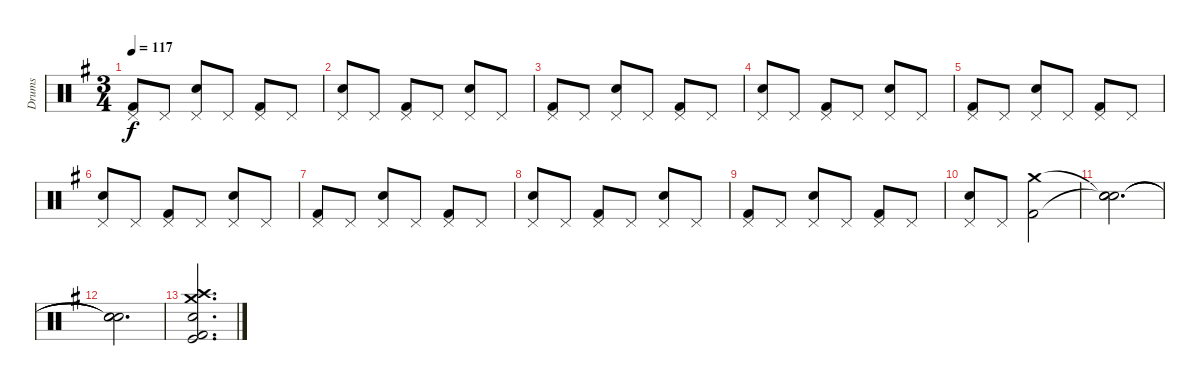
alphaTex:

\track ("Drums" "Drums") {instrument percussion}
\staff {score}
\articulation defaults
\ts (3 4)
\tempo 117
\clef neutral
\ks g
("Pedal Hi-Hat (hit)" "Kick (hit) 2").8{dy f} "Pedal Hi-Hat (hit)".8 ("Pedal Hi-Hat (hit)" "Snare (hit) 2").8 "Pedal Hi-Hat (hit)".8 ("Pedal Hi-Hat (hit)" "Kick (hit) 2").8 "Pedal Hi-Hat (hit)".8 |
("Pedal Hi-Hat (hit)" "Snare (hit) 2").8 "Pedal Hi-Hat (hit)".8 ("Pedal Hi-Hat (hit)" "Kick (hit) 2").8 "Pedal Hi-Hat (hit)".8 ("Pedal Hi-Hat (hit)" "Snare (hit) 2").8 "Pedal Hi-Hat (hit)".8 |
("Pedal Hi-Hat (hit)" "Kick (hit) 2").8 "Pedal Hi-Hat (hit)".8 ("Pedal Hi-Hat (hit)" "Snare (hit) 2").8 "Pedal Hi-Hat (hit)".8 ("Pedal Hi-Hat (hit)" "Kick (hit) 2").8 "Pedal Hi-Hat (hit)".8 |
("Pedal Hi-Hat (hit)" "Snare (hit) 2").8 "Pedal Hi-Hat (hit)".8 ("Pedal Hi-Hat (hit)" "Kick (hit) 2").8 "Pedal Hi-Hat (hit)".8 ("Pedal Hi-Hat (hit)" "Snare (hit) 2").8 "Pedal Hi-Hat (hit)".8 |
("Pedal Hi-Hat (hit)" "Kick (hit) 2").8 "Pedal Hi-Hat (hit)".8 ("Pedal Hi-Hat (hit)" "Snare (hit) 2").8 "Pedal Hi-Hat (hit)".8 ("Pedal Hi-Hat (hit)" "Kick (hit) 2").8 "Pedal Hi-Hat (hit)".8 |
("Pedal Hi-Hat (hit)" "Snare (hit) 2").8 "Pedal Hi-Hat (hit)".8 ("Pedal Hi-Hat (hit)" "Kick (hit) 2").8 "Pedal Hi-Hat (hit)".8 ("Pedal Hi-Hat (hit)" "Snare (hit) 2").8 "Pedal Hi-Hat (hit)".8 |
("Pedal Hi-Hat (hit)" "Kick (hit) 2").8 "Pedal Hi-Hat (hit)".8 ("Pedal Hi-Hat (hit)" "Snare (hit) 2").8 "Pedal Hi-Hat (hit)".8 ("Pedal Hi-Hat (hit)" "Kick (hit) 2").8 "Pedal Hi-Hat (hit)".8 |
("Pedal Hi-Hat (hit)" "Snare (hit) 2").8 "Pedal Hi-Hat (hit)".8 ("Pedal Hi-Hat (hit)" "Kick (hit) 2").8 "Pedal Hi-Hat (hit)".8 ("Pedal Hi-Hat (hit)" "Snare (hit) 2").8 "Pedal Hi-Hat (hit)".8 |
("Pedal Hi-Hat (hit)" "Kick (hit) 2").8 "Pedal Hi-Hat (hit)".8 ("Pedal Hi-Hat (hit)" "Snare (hit) 2").8 "Pedal Hi-Hat (hit)".8 ("Pedal Hi-Hat (hit)" "Kick (hit) 2").8 "Pedal Hi-Hat (hit)".8 |
("Pedal Hi-Hat (hit)" "Snare (hit) 2").8 "Pedal Hi-Hat (hit)".8 ("Crash medium (hit)" "Kick (hit) 2").2 |
("Snare (hit)"{t} "Snare (hit)"{t} "Snare (hit)").2{d} |
("Snare (hit)"{t} "Snare (hit)"{t} "Snare (hit)"{t}).2{d} |
("Crash medium (hit)" "Crash high (hit)" "Electric Snare (hit)" "Kick (hit) 2" "Kick (hit)").2{d}
